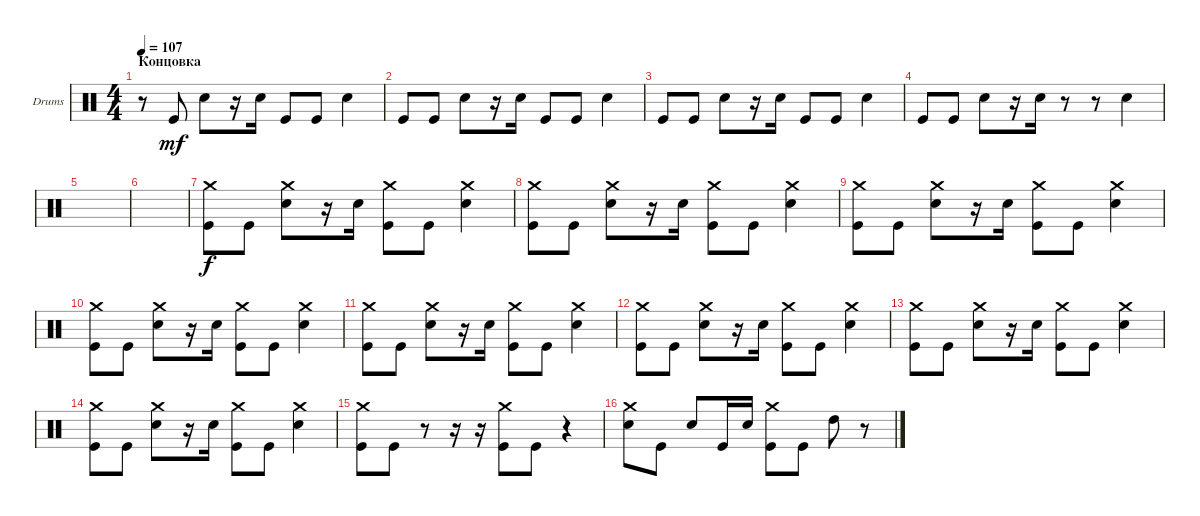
\defaultSystemsLayout 4
\bracketExtendMode groupsimilarinstruments
\firstSystemTrackNameOrientation horizontal
\otherSystemsTrackNameOrientation horizontal
\track ("Drumkit" "Drums") {instrument percussion}
\staff {score}
\articulation defaults
\ts (4 4)
\section ("" "Концовка")
\tempo 107
\clef neutral
\ks c
r.8{dy f} "Kick (hit)".8{dy mf} "Snare (hit) 2".8 r.16 "Snare (hit) 2".16 "Kick (hit)".8 "Kick (hit)".8 "Snare (hit) 2".4 |
"Kick (hit)".8 "Kick (hit)".8 "Snare (hit) 2".8 r.16 "Snare (hit) 2".16 "Kick (hit)".8 "Kick (hit)".8 "Snare (hit) 2".4 |
"Kick (hit)".8 "Kick (hit)".8 "Snare (hit) 2".8 r.16 "Snare (hit) 2".16 "Kick (hit)".8 "Kick (hit)".8 "Snare (hit) 2".4 |
"Kick (hit)".8 "Kick (hit)".8 "Snare (hit) 2".8 r.16 "Snare (hit) 2".16 r.8 r.8 "Snare (hit) 2".4 |
|
|
("Kick (hit)" "Crash medium (hit)").8{dy f} "Kick (hit)".8 ("Snare (hit) 2" "Crash medium (hit)").8 r.16 "Snare (hit) 2".16 ("Kick (hit)" "Crash medium (hit)").8 "Kick (hit)".8 ("Snare (hit) 2" "Crash medium (hit)").4 |
("Kick (hit)" "Crash medium (hit)").8 "Kick (hit)".8 ("Snare (hit) 2" "Crash medium (hit)").8 r.16 "Snare (hit) 2".16 ("Kick (hit)" "Crash medium (hit)").8 "Kick (hit)".8 ("Snare (hit) 2" "Crash medium (hit)").4 |
("Kick (hit)" "Crash medium (hit)").8 "Kick (hit)".8 ("Snare (hit) 2" "Crash medium (hit)").8 r.16 "Snare (hit) 2".16 ("Kick (hit)" "Crash medium (hit)").8 "Kick (hit)".8 ("Snare (hit) 2" "Crash medium (hit)").4 |
("Kick (hit)" "Crash medium (hit)").8 "Kick (hit)".8 ("Snare (hit) 2" "Crash medium (hit)").8 r.16 "Snare (hit) 2".16 ("Kick (hit)" "Crash medium (hit)").8 "Kick (hit)".8 ("Snare (hit) 2" "Crash medium (hit)").4 |
("Kick (hit)" "Crash medium (hit)").8 "Kick (hit)".8 ("Snare (hit) 2" "Crash medium (hit)").8 r.16 "Snare (hit) 2".16 ("Kick (hit)" "Crash medium (hit)").8 "Kick (hit)".8 ("Snare (hit) 2" "Crash medium (hit)").4 |
("Kick (hit)" "Crash medium (hit)").8 "Kick (hit)".8 ("Snare (hit) 2" "Crash medium (hit)").8 r.16 "Snare (hit) 2".16 ("Kick (hit)" "Crash medium (hit)").8 "Kick (hit)".8 ("Snare (hit) 2" "Crash medium (hit)").4 |
("Kick (hit)" "Crash medium (hit)").8 "Kick (hit)".8 ("Snare (hit) 2" "Crash medium (hit)").8 r.16 "Snare (hit) 2".16 ("Kick (hit)" "Crash medium (hit)").8 "Kick (hit)".8 ("Snare (hit) 2" "Crash medium (hit)").4 |
("Kick (hit)" "Crash medium (hit)").8 "Kick (hit)".8 ("Snare (hit) 2" "Crash medium (hit)").8 r.16 "Snare (hit) 2".16 ("Kick (hit)" "Crash medium (hit)").8 "Kick (hit)".8 ("Snare (hit) 2" "Crash medium (hit)").4 |
("Kick (hit)" "Crash medium (hit)").8 "Kick (hit)".8 r.8 r.16 r.16 ("Kick (hit)" "Crash medium (hit)").8 "Kick (hit)".8 r.4 |
("Crash medium (hit)" "Snare (hit) 2").8 "Kick (hit)".8 "Snare (hit) 2".8 "Kick (hit)".16 "Snare (hit) 2".16 ("Kick (hit)" "Crash medium (hit)").8 "Kick (hit)".8 "High Tom (hit)".8 r.8
